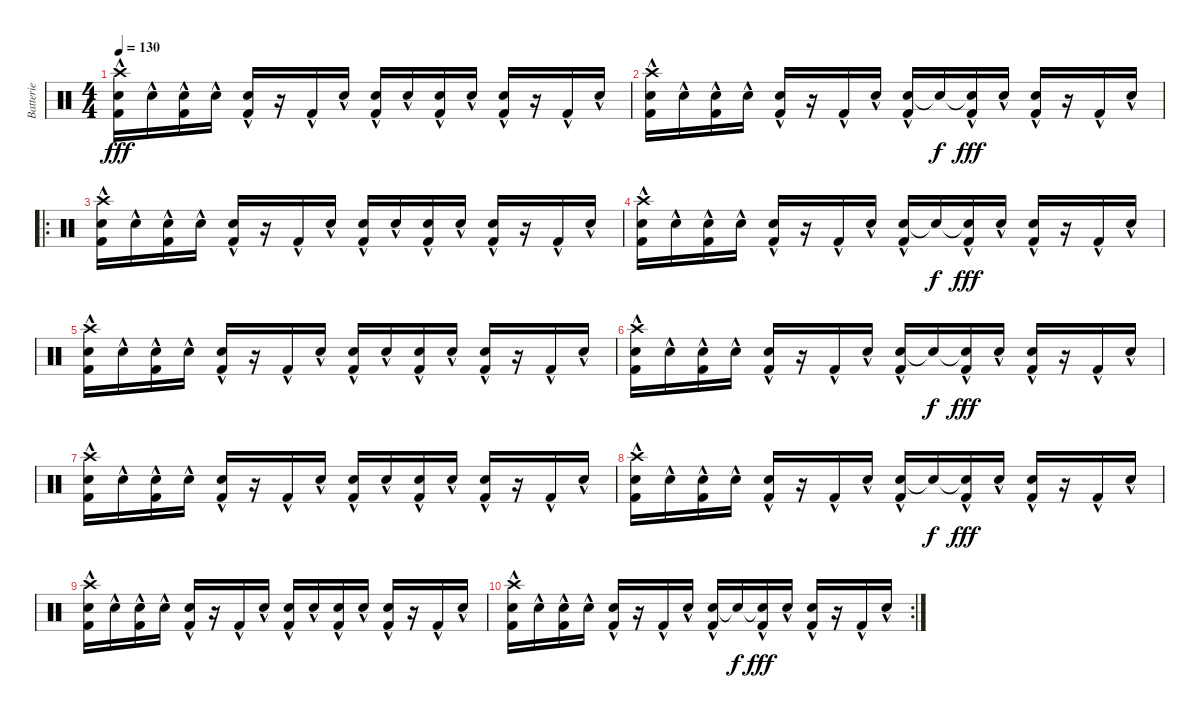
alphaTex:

\track ("Batterie" "Batterie") {instrument percussion}
\staff {score}
\articulation defaults
\ts (4 4)
\tempo 130
\clef neutral
\ks c
("Crash high (hit)"{hac} "Electric Snare (hit)"{hac} "Kick (hit) 2"{hac}).16{dy fff} "Electric Snare (hit)"{hac}.16 ("Electric Snare (hit)"{hac} "Kick (hit) 2"{hac}).16 "Electric Snare (hit)"{hac}.16 ("Electric Snare (hit)"{hac} "Kick (hit) 2"{hac}).16 r.16 "Kick (hit) 2"{hac}.16 "Electric Snare (hit)"{hac}.16 ("Electric Snare (hit)"{hac} "Kick (hit) 2"{hac}).16 "Electric Snare (hit)"{hac}.16 ("Electric Snare (hit)"{hac} "Kick (hit) 2"{hac}).16 "Electric Snare (hit)"{hac}.16 ("Electric Snare (hit)"{hac} "Kick (hit) 2"{hac}).16 r.16 "Kick (hit) 2"{hac}.16 "Electric Snare (hit)"{hac}.16 |
("Crash high (hit)"{hac} "Electric Snare (hit)"{hac} "Kick (hit) 2"{hac}).16 "Electric Snare (hit)"{hac}.16 ("Electric Snare (hit)"{hac} "Kick (hit) 2"{hac}).16 "Electric Snare (hit)"{hac}.16 ("Electric Snare (hit)"{hac} "Kick (hit) 2"{hac}).16 r.16 "Kick (hit) 2"{hac}.16 "Electric Snare (hit)"{hac}.16 ("Electric Snare (hit)"{hac} "Kick (hit) 2"{hac}).16 "Electric Snare (hit)"{t}.16{dy f} ("Electric Snare (hit)"{t} "Kick (hit) 2"{hac}).16{dy fff} "Electric Snare (hit)"{hac}.16 ("Electric Snare (hit)"{hac} "Kick (hit) 2"{hac}).16 r.16 "Kick (hit) 2"{hac}.16 "Electric Snare (hit)"{hac}.16 |
\ro
("Crash high (hit)"{hac} "Electric Snare (hit)"{hac} "Kick (hit) 2"{hac}).16 "Electric Snare (hit)"{hac}.16 ("Electric Snare (hit)"{hac} "Kick (hit) 2"{hac}).16 "Electric Snare (hit)"{hac}.16 ("Electric Snare (hit)"{hac} "Kick (hit) 2"{hac}).16 r.16 "Kick (hit) 2"{hac}.16 "Electric Snare (hit)"{hac}.16 ("Electric Snare (hit)"{hac} "Kick (hit) 2"{hac}).16 "Electric Snare (hit)"{hac}.16 ("Electric Snare (hit)"{hac} "Kick (hit) 2"{hac}).16 "Electric Snare (hit)"{hac}.16 ("Electric Snare (hit)"{hac} "Kick (hit) 2"{hac}).16 r.16 "Kick (hit) 2"{hac}.16 "Electric Snare (hit)"{hac}.16 |
("Crash high (hit)"{hac} "Electric Snare (hit)"{hac} "Kick (hit) 2"{hac}).16 "Electric Snare (hit)"{hac}.16 ("Electric Snare (hit)"{hac} "Kick (hit) 2"{hac}).16 "Electric Snare (hit)"{hac}.16 ("Electric Snare (hit)"{hac} "Kick (hit) 2"{hac}).16 r.16 "Kick (hit) 2"{hac}.16 "Electric Snare (hit)"{hac}.16 ("Electric Snare (hit)"{hac} "Kick (hit) 2"{hac}).16 "Electric Snare (hit)"{t}.16{dy f} ("Electric Snare (hit)"{t} "Kick (hit) 2"{hac}).16{dy fff} "Electric Snare (hit)"{hac}.16 ("Electric Snare (hit)"{hac} "Kick (hit) 2"{hac}).16 r.16 "Kick (hit) 2"{hac}.16 "Electric Snare (hit)"{hac}.16 |
("Crash high (hit)"{hac} "Electric Snare (hit)"{hac} "Kick (hit) 2"{hac}).16 "Electric Snare (hit)"{hac}.16 ("Electric Snare (hit)"{hac} "Kick (hit) 2"{hac}).16 "Electric Snare (hit)"{hac}.16 ("Electric Snare (hit)"{hac} "Kick (hit) 2"{hac}).16 r.16 "Kick (hit) 2"{hac}.16 "Electric Snare (hit)"{hac}.16 ("Electric Snare (hit)"{hac} "Kick (hit) 2"{hac}).16 "Electric Snare (hit)"{hac}.16 ("Electric Snare (hit)"{hac} "Kick (hit) 2"{hac}).16 "Electric Snare (hit)"{hac}.16 ("Electric Snare (hit)"{hac} "Kick (hit) 2"{hac}).16 r.16 "Kick (hit) 2"{hac}.16 "Electric Snare (hit)"{hac}.16 |
("Crash high (hit)"{hac} "Electric Snare (hit)"{hac} "Kick (hit) 2"{hac}).16 "Electric Snare (hit)"{hac}.16 ("Electric Snare (hit)"{hac} "Kick (hit) 2"{hac}).16 "Electric Snare (hit)"{hac}.16 ("Electric Snare (hit)"{hac} "Kick (hit) 2"{hac}).16 r.16 "Kick (hit) 2"{hac}.16 "Electric Snare (hit)"{hac}.16 ("Electric Snare (hit)"{hac} "Kick (hit) 2"{hac}).16 "Electric Snare (hit)"{t}.16{dy f} ("Electric Snare (hit)"{t} "Kick (hit) 2"{hac}).16{dy fff} "Electric Snare (hit)"{hac}.16 ("Electric Snare (hit)"{hac} "Kick (hit) 2"{hac}).16 r.16 "Kick (hit) 2"{hac}.16 "Electric Snare (hit)"{hac}.16 |
("Crash high (hit)"{hac} "Electric Snare (hit)"{hac} "Kick (hit) 2"{hac}).16 "Electric Snare (hit)"{hac}.16 ("Electric Snare (hit)"{hac} "Kick (hit) 2"{hac}).16 "Electric Snare (hit)"{hac}.16 ("Electric Snare (hit)"{hac} "Kick (hit) 2"{hac}).16 r.16 "Kick (hit) 2"{hac}.16 "Electric Snare (hit)"{hac}.16 ("Electric Snare (hit)"{hac} "Kick (hit) 2"{hac}).16 "Electric Snare (hit)"{hac}.16 ("Electric Snare (hit)"{hac} "Kick (hit) 2"{hac}).16 "Electric Snare (hit)"{hac}.16 ("Electric Snare (hit)"{hac} "Kick (hit) 2"{hac}).16 r.16 "Kick (hit) 2"{hac}.16 "Electric Snare (hit)"{hac}.16 |
("Crash high (hit)"{hac} "Electric Snare (hit)"{hac} "Kick (hit) 2"{hac}).16 "Electric Snare (hit)"{hac}.16 ("Electric Snare (hit)"{hac} "Kick (hit) 2"{hac}).16 "Electric Snare (hit)"{hac}.16 ("Electric Snare (hit)"{hac} "Kick (hit) 2"{hac}).16 r.16 "Kick (hit) 2"{hac}.16 "Electric Snare (hit)"{hac}.16 ("Electric Snare (hit)"{hac} "Kick (hit) 2"{hac}).16 "Electric Snare (hit)"{t}.16{dy f} ("Electric Snare (hit)"{t} "Kick (hit) 2"{hac}).16{dy fff} "Electric Snare (hit)"{hac}.16 ("Electric Snare (hit)"{hac} "Kick (hit) 2"{hac}).16 r.16 "Kick (hit) 2"{hac}.16 "Electric Snare (hit)"{hac}.16 |
("Crash high (hit)"{hac} "Electric Snare (hit)"{hac} "Kick (hit) 2"{hac}).16 "Electric Snare (hit)"{hac}.16 ("Electric Snare (hit)"{hac} "Kick (hit) 2"{hac}).16 "Electric Snare (hit)"{hac}.16 ("Electric Snare (hit)"{hac} "Kick (hit) 2"{hac}).16 r.16 "Kick (hit) 2"{hac}.16 "Electric Snare (hit)"{hac}.16 ("Electric Snare (hit)"{hac} "Kick (hit) 2"{hac}).16 "Electric Snare (hit)"{hac}.16 ("Electric Snare (hit)"{hac} "Kick (hit) 2"{hac}).16 "Electric Snare (hit)"{hac}.16 ("Electric Snare (hit)"{hac} "Kick (hit) 2"{hac}).16 r.16 "Kick (hit) 2"{hac}.16 "Electric Snare (hit)"{hac}.16 |
\rc 2
("Crash high (hit)"{hac} "Electric Snare (hit)"{hac} "Kick (hit) 2"{hac}).16 "Electric Snare (hit)"{hac}.16 ("Electric Snare (hit)"{hac} "Kick (hit) 2"{hac}).16 "Electric Snare (hit)"{hac}.16 ("Electric Snare (hit)"{hac} "Kick (hit) 2"{hac}).16 r.16 "Kick (hit) 2"{hac}.16 "Electric Snare (hit)"{hac}.16 ("Electric Snare (hit)"{hac} "Kick (hit) 2"{hac}).16 "Electric Snare (hit)"{t}.16{dy f} ("Electric Snare (hit)"{t} "Kick (hit) 2"{hac}).16{dy fff} "Electric Snare (hit)"{hac}.16 ("Electric Snare (hit)"{hac} "Kick (hit) 2"{hac}).16 r.16 "Kick (hit) 2"{hac}.16 "Electric Snare (hit)"{hac}.16
